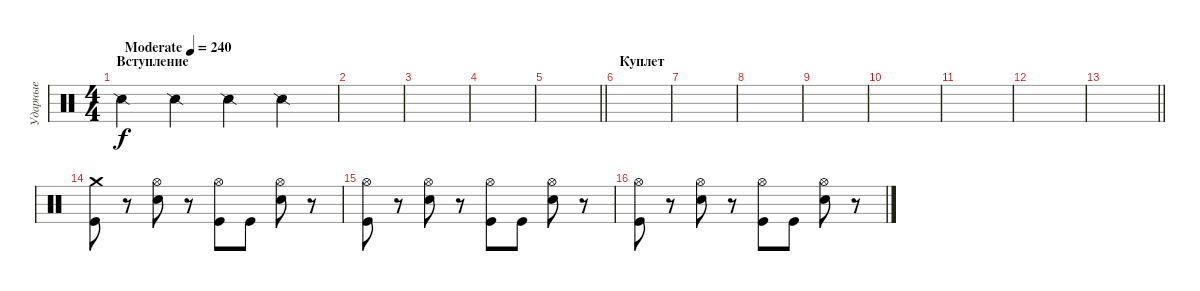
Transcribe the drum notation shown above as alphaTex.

\track ("Ударные" "Ударные") {instrument percussion}
\staff {score}
\articulation defaults
\ts (4 4)
\section ("" "Вступление")
\tempo (240 "Moderate")
\clef neutral
\ks c "Snare (side stick) 2".4{dy f} "Snare (side stick) 2".4 "Snare (side stick) 2".4 "Snare (side stick) 2".4
|
|
|
|
\barLineRight lightlight
|
\section ("" "Куплет")
|
|
|
|
|
|
|
\barLineRight lightlight
|
\section ("" " ")
("Crash medium (hit)" "Kick (hit)").8 r.8 ("Hi-Hat (open)" "Electric Snare (hit)").8 r.8 ("Hi-Hat (open)" "Kick (hit)").8 "Kick (hit)".8 ("Hi-Hat (open)" "Electric Snare (hit)").8 r.8 |
("Hi-Hat (open)" "Kick (hit)").8 r.8 ("Hi-Hat (open)" "Electric Snare (hit)").8 r.8 ("Hi-Hat (open)" "Kick (hit)").8 "Kick (hit)".8 ("Hi-Hat (open)" "Electric Snare (hit)").8 r.8 |
("Hi-Hat (open)" "Kick (hit)").8 r.8 ("Hi-Hat (open)" "Electric Snare (hit)").8 r.8 ("Hi-Hat (open)" "Kick (hit)").8 "Kick (hit)".8 ("Hi-Hat (open)" "Electric Snare (hit)").8 r.8
